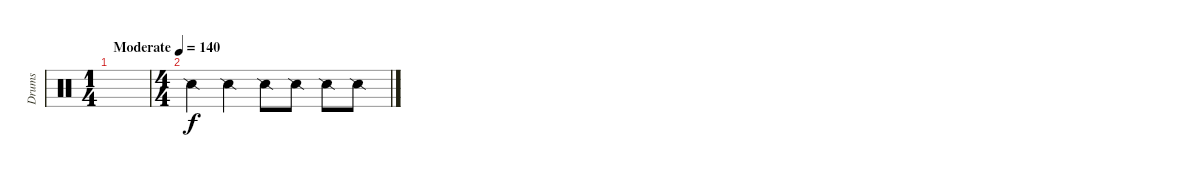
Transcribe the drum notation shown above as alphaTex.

\track ("Drums" "Drums") {instrument percussion}
\staff {score}
\articulation defaults
\ts (1 4)
\tempo (140 "Moderate")
\clef neutral
\ks c
|
\ts (4 4)
"Snare (side stick) 2".4 "Snare (side stick) 2".4 "Snare (side stick) 2".8 "Snare (side stick) 2".8 "Snare (side stick) 2".8 "Snare (side stick) 2".8
